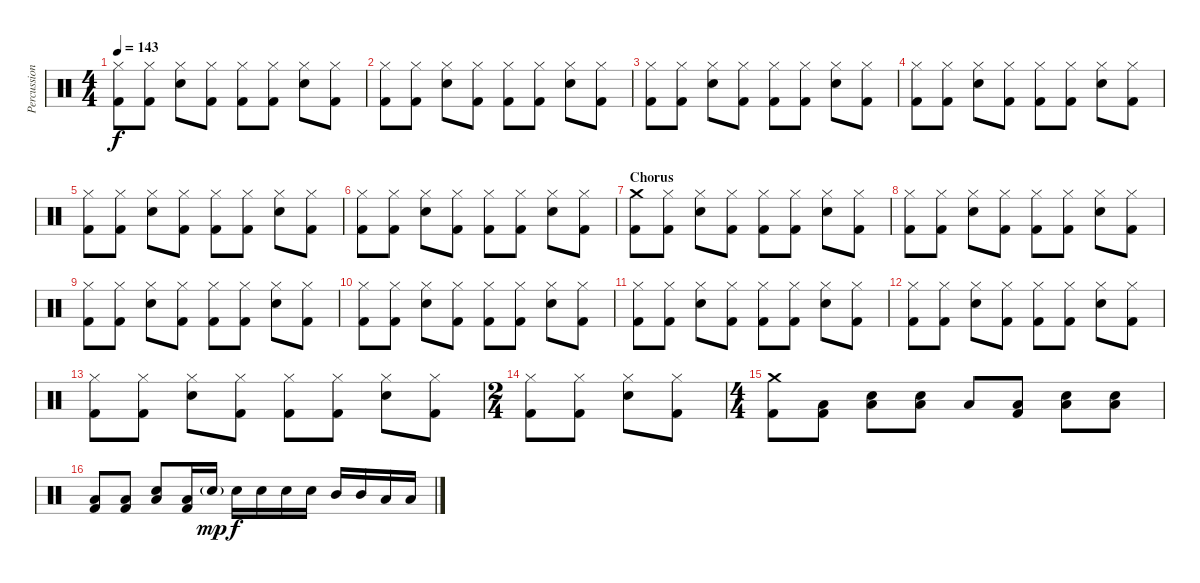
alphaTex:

\track ("Percussion" "Percussion") {instrument percussion}
\staff {score}
\articulation defaults
\ts (4 4)
\tempo 143
\clef neutral
\ks c
("Hi-Hat (closed)" "Kick (hit) 2").8{dy f} ("Hi-Hat (closed)" "Kick (hit) 2").8 ("Hi-Hat (closed)" "Electric Snare (hit)").8 ("Hi-Hat (closed)" "Kick (hit) 2").8 ("Hi-Hat (closed)" "Kick (hit) 2").8 ("Hi-Hat (closed)" "Kick (hit) 2").8 ("Hi-Hat (closed)" "Electric Snare (hit)").8 ("Hi-Hat (closed)" "Kick (hit) 2").8 |
("Hi-Hat (closed)" "Kick (hit) 2").8 ("Hi-Hat (closed)" "Kick (hit) 2").8 ("Hi-Hat (closed)" "Electric Snare (hit)").8 ("Hi-Hat (closed)" "Kick (hit) 2").8 ("Hi-Hat (closed)" "Kick (hit) 2").8 ("Hi-Hat (closed)" "Kick (hit) 2").8 ("Hi-Hat (closed)" "Electric Snare (hit)").8 ("Hi-Hat (closed)" "Kick (hit) 2").8 |
("Hi-Hat (closed)" "Kick (hit) 2").8 ("Hi-Hat (closed)" "Kick (hit) 2").8 ("Hi-Hat (closed)" "Electric Snare (hit)").8 ("Hi-Hat (closed)" "Kick (hit) 2").8 ("Hi-Hat (closed)" "Kick (hit) 2").8 ("Hi-Hat (closed)" "Kick (hit) 2").8 ("Hi-Hat (closed)" "Electric Snare (hit)").8 ("Hi-Hat (closed)" "Kick (hit) 2").8 |
("Hi-Hat (closed)" "Kick (hit) 2").8 ("Hi-Hat (closed)" "Kick (hit) 2").8 ("Hi-Hat (closed)" "Electric Snare (hit)").8 ("Hi-Hat (closed)" "Kick (hit) 2").8 ("Hi-Hat (closed)" "Kick (hit) 2").8 ("Hi-Hat (closed)" "Kick (hit) 2").8 ("Hi-Hat (closed)" "Electric Snare (hit)").8 ("Hi-Hat (closed)" "Kick (hit) 2").8 |
("Hi-Hat (closed)" "Kick (hit) 2").8 ("Hi-Hat (closed)" "Kick (hit) 2").8 ("Hi-Hat (closed)" "Electric Snare (hit)").8 ("Hi-Hat (closed)" "Kick (hit) 2").8 ("Hi-Hat (closed)" "Kick (hit) 2").8 ("Hi-Hat (closed)" "Kick (hit) 2").8 ("Hi-Hat (closed)" "Electric Snare (hit)").8 ("Hi-Hat (closed)" "Kick (hit) 2").8 |
("Hi-Hat (closed)" "Kick (hit) 2").8 ("Hi-Hat (closed)" "Kick (hit) 2").8 ("Hi-Hat (closed)" "Electric Snare (hit)").8 ("Hi-Hat (closed)" "Kick (hit) 2").8 ("Hi-Hat (closed)" "Kick (hit) 2").8 ("Hi-Hat (closed)" "Kick (hit) 2").8 ("Hi-Hat (closed)" "Electric Snare (hit)").8 ("Hi-Hat (closed)" "Kick (hit) 2").8 |
\section ("" "Chorus")
("Crash medium (hit)" "Kick (hit) 2").8 ("Hi-Hat (closed)" "Kick (hit) 2").8 ("Hi-Hat (closed)" "Electric Snare (hit)").8 ("Hi-Hat (closed)" "Kick (hit) 2").8 ("Hi-Hat (closed)" "Kick (hit) 2").8 ("Hi-Hat (closed)" "Kick (hit) 2").8 ("Hi-Hat (closed)" "Electric Snare (hit)").8 ("Hi-Hat (closed)" "Kick (hit) 2").8 |
("Hi-Hat (closed)" "Kick (hit) 2").8 ("Hi-Hat (closed)" "Kick (hit) 2").8 ("Hi-Hat (closed)" "Electric Snare (hit)").8 ("Hi-Hat (closed)" "Kick (hit) 2").8 ("Hi-Hat (closed)" "Kick (hit) 2").8 ("Hi-Hat (closed)" "Kick (hit) 2").8 ("Hi-Hat (closed)" "Electric Snare (hit)").8 ("Hi-Hat (closed)" "Kick (hit) 2").8 |
("Hi-Hat (closed)" "Kick (hit) 2").8 ("Hi-Hat (closed)" "Kick (hit) 2").8 ("Hi-Hat (closed)" "Electric Snare (hit)").8 ("Hi-Hat (closed)" "Kick (hit) 2").8 ("Hi-Hat (closed)" "Kick (hit) 2").8 ("Hi-Hat (closed)" "Kick (hit) 2").8 ("Hi-Hat (closed)" "Electric Snare (hit)").8 ("Hi-Hat (closed)" "Kick (hit) 2").8 |
("Hi-Hat (closed)" "Kick (hit) 2").8 ("Hi-Hat (closed)" "Kick (hit) 2").8 ("Hi-Hat (closed)" "Electric Snare (hit)").8 ("Hi-Hat (closed)" "Kick (hit) 2").8 ("Hi-Hat (closed)" "Kick (hit) 2").8 ("Hi-Hat (closed)" "Kick (hit) 2").8 ("Hi-Hat (closed)" "Electric Snare (hit)").8 ("Hi-Hat (closed)" "Kick (hit) 2").8 |
("Hi-Hat (closed)" "Kick (hit) 2").8 ("Hi-Hat (closed)" "Kick (hit) 2").8 ("Hi-Hat (closed)" "Electric Snare (hit)").8 ("Hi-Hat (closed)" "Kick (hit) 2").8 ("Hi-Hat (closed)" "Kick (hit) 2").8 ("Hi-Hat (closed)" "Kick (hit) 2").8 ("Hi-Hat (closed)" "Electric Snare (hit)").8 ("Hi-Hat (closed)" "Kick (hit) 2").8 |
("Hi-Hat (closed)" "Kick (hit) 2").8 ("Hi-Hat (closed)" "Kick (hit) 2").8 ("Hi-Hat (closed)" "Electric Snare (hit)").8 ("Hi-Hat (closed)" "Kick (hit) 2").8 ("Hi-Hat (closed)" "Kick (hit) 2").8 ("Hi-Hat (closed)" "Kick (hit) 2").8 ("Hi-Hat (closed)" "Electric Snare (hit)").8 ("Hi-Hat (closed)" "Kick (hit) 2").8 |
("Hi-Hat (closed)" "Kick (hit) 2").8 ("Hi-Hat (closed)" "Kick (hit) 2").8 ("Hi-Hat (closed)" "Electric Snare (hit)").8 ("Hi-Hat (closed)" "Kick (hit) 2").8 ("Hi-Hat (closed)" "Kick (hit) 2").8 ("Hi-Hat (closed)" "Kick (hit) 2").8 ("Hi-Hat (closed)" "Electric Snare (hit)").8 ("Hi-Hat (closed)" "Kick (hit) 2").8 |
\ts (2 4)
("Hi-Hat (closed)" "Kick (hit) 2").8 ("Hi-Hat (closed)" "Kick (hit) 2").8 ("Hi-Hat (closed)" "Electric Snare (hit)").8 ("Hi-Hat (closed)" "Kick (hit) 2").8 |
\ts (4 4)
("Crash medium (hit)" "Kick (hit) 2").8 ("Low Floor Tom (hit)" "Kick (hit) 2").8 ("Low Floor Tom (hit)" "Electric Snare (hit)").8 ("Low Floor Tom (hit)" "Electric Snare (hit)").8 "Low Floor Tom (hit)".8 ("Low Floor Tom (hit)" "Kick (hit) 2").8 ("Low Floor Tom (hit)" "Electric Snare (hit)").8 ("Low Floor Tom (hit)" "Electric Snare (hit)").8 |
("Low Floor Tom (hit)" "Kick (hit) 2").8 ("Low Floor Tom (hit)" "Kick (hit) 2").8 ("Low Floor Tom (hit)" "Electric Snare (hit)").8 ("Low Floor Tom (hit)" "Kick (hit) 2").16 "Electric Snare (hit)"{g}.16{dy mp} "Electric Snare (hit)".16{dy f} "Electric Snare (hit)".16 "Electric Snare (hit)".16 "Electric Snare (hit)".16 "Mid Tom (hit)".16 "Mid Tom (hit)".16 "Low Tom (hit)".16 "Low Tom (hit)".16
